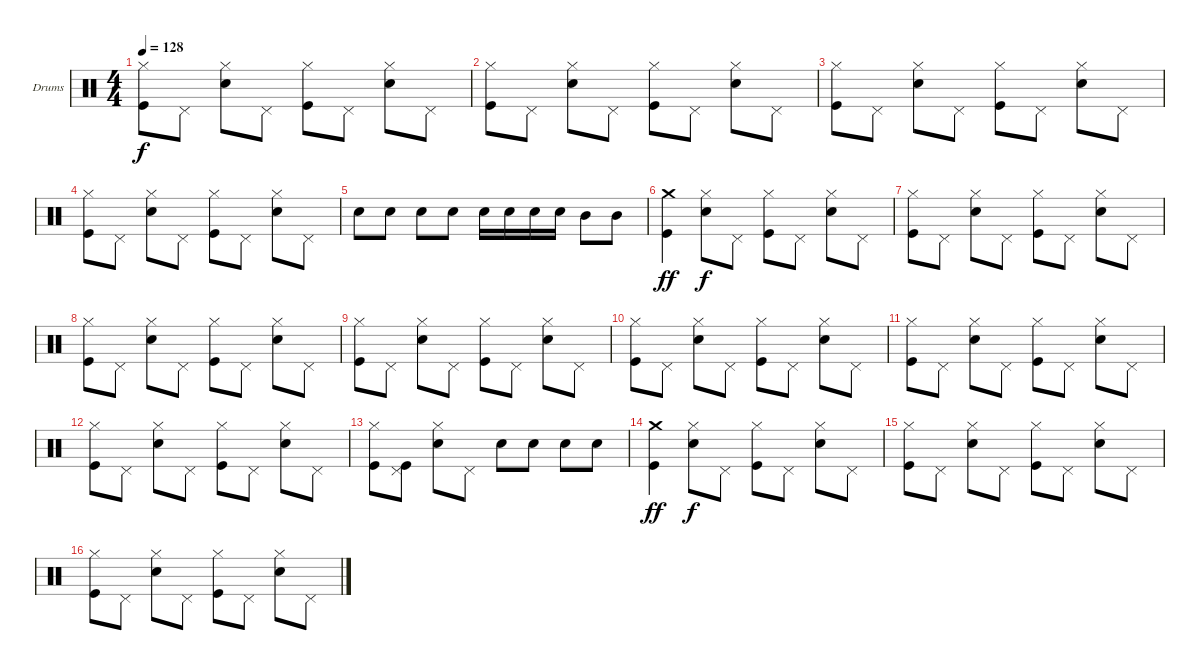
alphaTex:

\bracketExtendMode groupsimilarinstruments
\firstSystemTrackNameOrientation horizontal
\otherSystemsTrackNameOrientation horizontal
\track ("Drumkit" "Drums") {instrument percussion}
\staff {score}
\articulation defaults
\ts (4 4)
\tempo 128
\clef neutral
\ks c
("Hi-Hat (closed)" "Kick (hit)").8{dy f} "Pedal Hi-Hat (hit)".8 ("Hi-Hat (closed)" "Snare (hit) 2").8 "Pedal Hi-Hat (hit)".8 ("Hi-Hat (closed)" "Kick (hit)").8 "Pedal Hi-Hat (hit)".8 ("Hi-Hat (closed)" "Snare (hit) 2").8 "Pedal Hi-Hat (hit)".8 |
("Hi-Hat (closed)" "Kick (hit)").8 "Pedal Hi-Hat (hit)".8 ("Hi-Hat (closed)" "Snare (hit) 2").8 "Pedal Hi-Hat (hit)".8 ("Hi-Hat (closed)" "Kick (hit)").8 "Pedal Hi-Hat (hit)".8 ("Hi-Hat (closed)" "Snare (hit) 2").8 "Pedal Hi-Hat (hit)".8 |
("Hi-Hat (closed)" "Kick (hit)").8 "Pedal Hi-Hat (hit)".8 ("Hi-Hat (closed)" "Snare (hit) 2").8 "Pedal Hi-Hat (hit)".8 ("Hi-Hat (closed)" "Kick (hit)").8 "Pedal Hi-Hat (hit)".8 ("Hi-Hat (closed)" "Snare (hit) 2").8 "Pedal Hi-Hat (hit)".8 |
("Hi-Hat (closed)" "Kick (hit)").8 "Pedal Hi-Hat (hit)".8 ("Hi-Hat (closed)" "Snare (hit) 2").8 "Pedal Hi-Hat (hit)".8 ("Hi-Hat (closed)" "Kick (hit)").8 "Pedal Hi-Hat (hit)".8 ("Hi-Hat (closed)" "Snare (hit) 2").8 "Pedal Hi-Hat (hit)".8 |
"Snare (hit) 2".8 "Snare (hit) 2".8 "Snare (hit) 2".8 "Snare (hit) 2".8 "Snare (hit) 2".16 "Snare (hit) 2".16 "Snare (hit) 2".16 "Snare (hit) 2".16 "Mid Tom (hit)".8 "Mid Tom (hit)".8 |
("Crash medium (hit)" "Kick (hit)").4{dy ff} ("Hi-Hat (closed)" "Snare (hit) 2").8{dy f} "Pedal Hi-Hat (hit)".8 ("Hi-Hat (closed)" "Kick (hit)").8 "Pedal Hi-Hat (hit)".8 ("Hi-Hat (closed)" "Snare (hit) 2").8 "Pedal Hi-Hat (hit)".8 |
("Hi-Hat (closed)" "Kick (hit)").8 "Pedal Hi-Hat (hit)".8 ("Hi-Hat (closed)" "Snare (hit) 2").8 "Pedal Hi-Hat (hit)".8 ("Hi-Hat (closed)" "Kick (hit)").8 "Pedal Hi-Hat (hit)".8 ("Hi-Hat (closed)" "Snare (hit) 2").8 "Pedal Hi-Hat (hit)".8 |
("Hi-Hat (closed)" "Kick (hit)").8 "Pedal Hi-Hat (hit)".8 ("Hi-Hat (closed)" "Snare (hit) 2").8 "Pedal Hi-Hat (hit)".8 ("Hi-Hat (closed)" "Kick (hit)").8 "Pedal Hi-Hat (hit)".8 ("Hi-Hat (closed)" "Snare (hit) 2").8 "Pedal Hi-Hat (hit)".8 |
("Hi-Hat (closed)" "Kick (hit)").8 "Pedal Hi-Hat (hit)".8 ("Hi-Hat (closed)" "Snare (hit) 2").8 "Pedal Hi-Hat (hit)".8 ("Hi-Hat (closed)" "Kick (hit)").8 "Pedal Hi-Hat (hit)".8 ("Hi-Hat (closed)" "Snare (hit) 2").8 "Pedal Hi-Hat (hit)".8 |
("Hi-Hat (closed)" "Kick (hit)").8 "Pedal Hi-Hat (hit)".8 ("Hi-Hat (closed)" "Snare (hit) 2").8 "Pedal Hi-Hat (hit)".8 ("Hi-Hat (closed)" "Kick (hit)").8 "Pedal Hi-Hat (hit)".8 ("Hi-Hat (closed)" "Snare (hit) 2").8 "Pedal Hi-Hat (hit)".8 |
("Hi-Hat (closed)" "Kick (hit)").8 "Pedal Hi-Hat (hit)".8 ("Hi-Hat (closed)" "Snare (hit) 2").8 "Pedal Hi-Hat (hit)".8 ("Hi-Hat (closed)" "Kick (hit)").8 "Pedal Hi-Hat (hit)".8 ("Hi-Hat (closed)" "Snare (hit) 2").8 "Pedal Hi-Hat (hit)".8 |
("Hi-Hat (closed)" "Kick (hit)").8 "Pedal Hi-Hat (hit)".8 ("Hi-Hat (closed)" "Snare (hit) 2").8 "Pedal Hi-Hat (hit)".8 ("Hi-Hat (closed)" "Kick (hit)").8 "Pedal Hi-Hat (hit)".8 ("Hi-Hat (closed)" "Snare (hit) 2").8 "Pedal Hi-Hat (hit)".8 |
("Hi-Hat (closed)" "Kick (hit)").8 ("Pedal Hi-Hat (hit)" "Kick (hit)").8 ("Hi-Hat (closed)" "Snare (hit) 2").8 "Pedal Hi-Hat (hit)".8 "Snare (hit) 2".8 "Snare (hit) 2".8 "Snare (hit) 2".8 "Snare (hit) 2".8 |
("Crash medium (hit)" "Kick (hit)").4{dy ff} ("Hi-Hat (closed)" "Snare (hit) 2").8{dy f} "Pedal Hi-Hat (hit)".8 ("Hi-Hat (closed)" "Kick (hit)").8 "Pedal Hi-Hat (hit)".8 ("Hi-Hat (closed)" "Snare (hit) 2").8 "Pedal Hi-Hat (hit)".8 |
("Hi-Hat (closed)" "Kick (hit)").8 "Pedal Hi-Hat (hit)".8 ("Hi-Hat (closed)" "Snare (hit) 2").8 "Pedal Hi-Hat (hit)".8 ("Hi-Hat (closed)" "Kick (hit)").8 "Pedal Hi-Hat (hit)".8 ("Hi-Hat (closed)" "Snare (hit) 2").8 "Pedal Hi-Hat (hit)".8 |
("Hi-Hat (closed)" "Kick (hit)").8 "Pedal Hi-Hat (hit)".8 ("Hi-Hat (closed)" "Snare (hit) 2").8 "Pedal Hi-Hat (hit)".8 ("Hi-Hat (closed)" "Kick (hit)").8 "Pedal Hi-Hat (hit)".8 ("Hi-Hat (closed)" "Snare (hit) 2").8 "Pedal Hi-Hat (hit)".8
